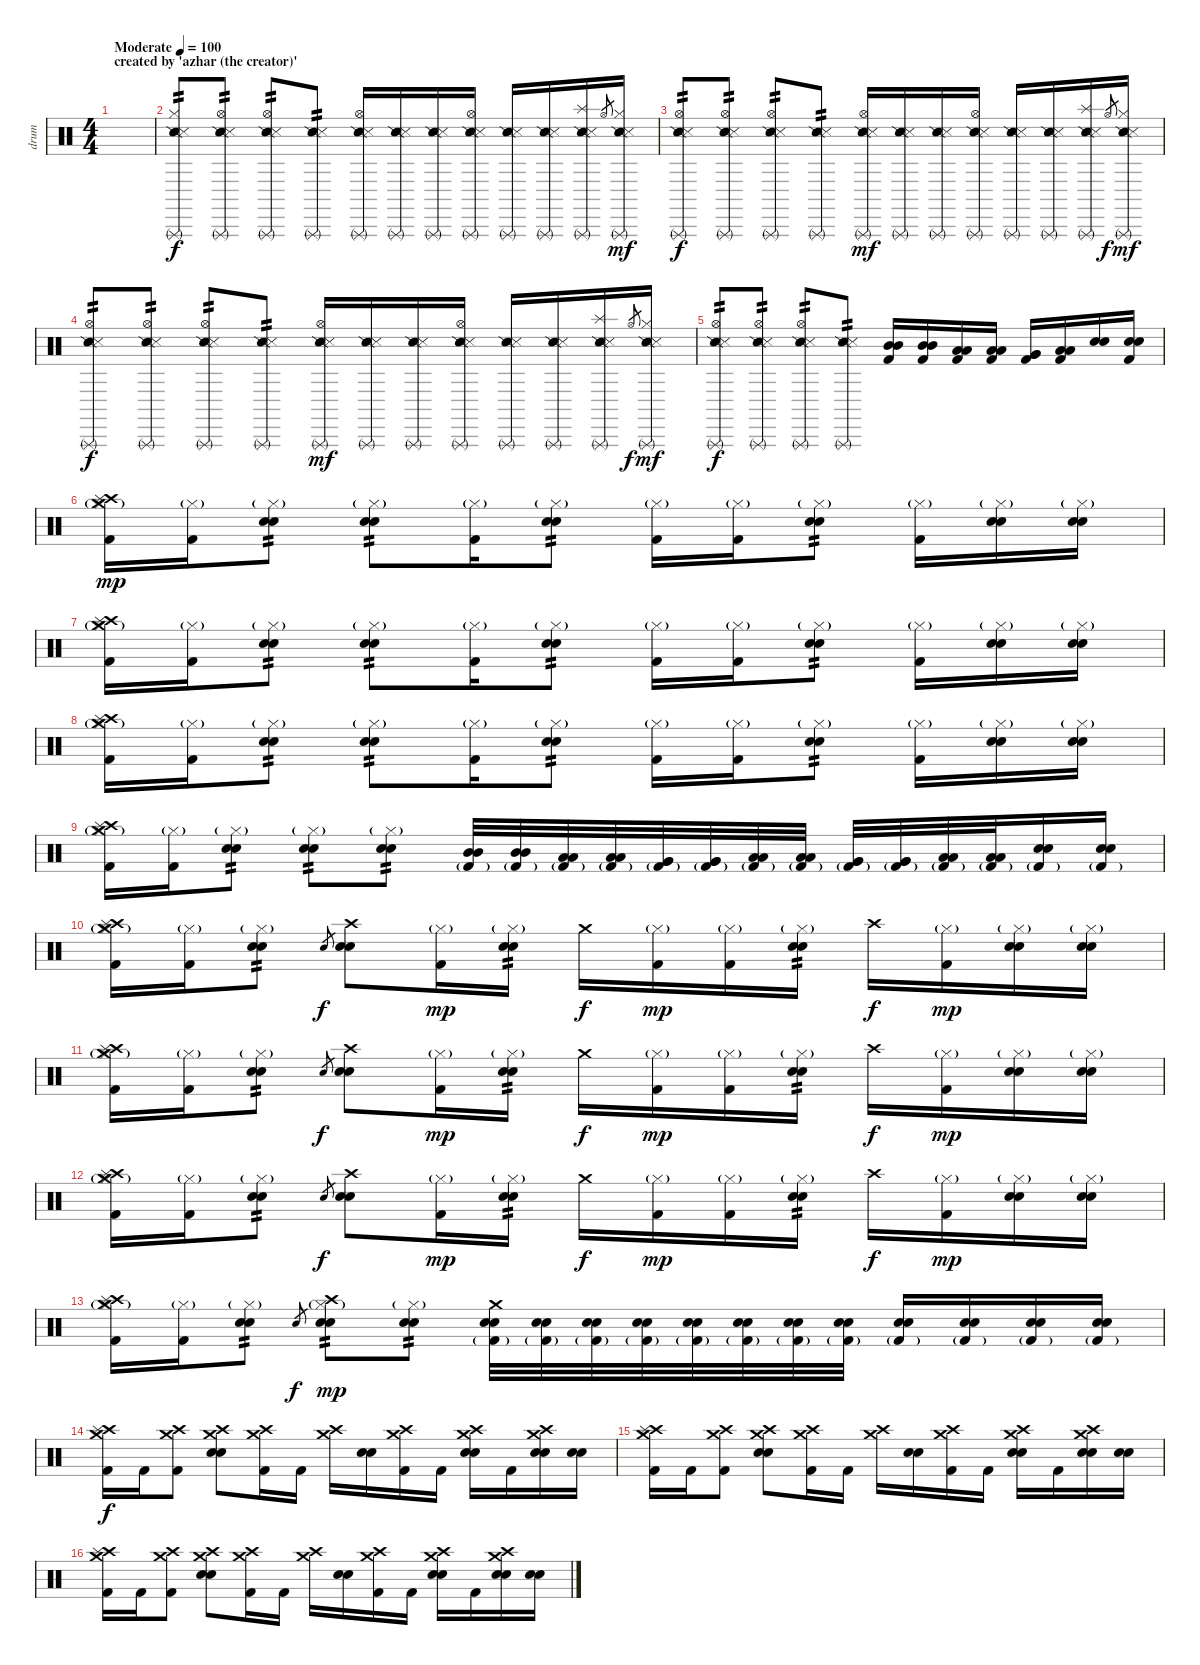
\track ("drum" "drum") {instrument percussion}
\staff {score}
\articulation defaults
\ts (4 4)
\section ("" "created by 'azhar (the creator)'")
\tempo (100 "Moderate")
\clef neutral
\ks c
|
("Triangle (rnute)" "Snare (side stick) 2" "Metronome (hit)" "Hi-Hat (closed)").8{tp 2} ("Triangle (rnute)" "Snare (side stick) 2" "Metronome (hit)" "Hi-Hat (open)").8{tp 2} ("Triangle (rnute)" "Snare (side stick) 2" "Metronome (hit)" "Hi-Hat (open)").8{tp 2} ("Triangle (rnute)" "Snare (side stick) 2" "Metronome (hit)").8{tp 2} ("Triangle (rnute)" "Snare (side stick) 2" "Metronome (hit)" "Hi-Hat (open)").16 ("Triangle (rnute)" "Snare (side stick) 2" "Metronome (hit)").16 ("Triangle (rnute)" "Snare (side stick) 2" "Metronome (hit)").16 ("Triangle (rnute)" "Snare (side stick) 2" "Metronome (hit)" "Hi-Hat (open)").16 ("Triangle (rnute)" "Snare (side stick) 2" "Metronome (hit)").16 ("Triangle (rnute)" "Snare (side stick) 2" "Metronome (hit)").16 ("Triangle (rnute)" "Snare (side stick) 2" "Metronome (hit)" "Splash (hit)").16 "Hi-Hat (open)".8{gr dy f} ("Triangle (rnute)" "Snare (side stick) 2" "Metronome (hit)" "Hi-Hat (closed)").16{dy mf} |
("Triangle (rnute)" "Snare (side stick) 2" "Metronome (hit)" "Hi-Hat (open)").8{tp 2 dy f} ("Triangle (rnute)" "Snare (side stick) 2" "Metronome (hit)" "Hi-Hat (open)").8{tp 2} ("Triangle (rnute)" "Snare (side stick) 2" "Metronome (hit)" "Hi-Hat (open)").8{tp 2} ("Triangle (rnute)" "Snare (side stick) 2" "Metronome (hit)").8{tp 2} ("Triangle (rnute)" "Snare (side stick) 2" "Metronome (hit)" "Hi-Hat (open)").16{dy mf} ("Triangle (rnute)" "Snare (side stick) 2" "Metronome (hit)").16 ("Triangle (rnute)" "Snare (side stick) 2" "Metronome (hit)").16 ("Triangle (rnute)" "Snare (side stick) 2" "Metronome (hit)" "Hi-Hat (open)").16 ("Triangle (rnute)" "Snare (side stick) 2" "Metronome (hit)").16 ("Triangle (rnute)" "Snare (side stick) 2" "Metronome (hit)").16 ("Triangle (rnute)" "Snare (side stick) 2" "Metronome (hit)" "Splash (hit)").16 "Hi-Hat (open)".8{gr dy f} ("Triangle (rnute)" "Snare (side stick) 2" "Metronome (hit)" "Hi-Hat (closed)").16{dy mf} |
("Triangle (rnute)" "Snare (side stick) 2" "Metronome (hit)" "Hi-Hat (open)").8{tp 2 dy f} ("Triangle (rnute)" "Snare (side stick) 2" "Metronome (hit)" "Hi-Hat (open)").8{tp 2} ("Triangle (rnute)" "Snare (side stick) 2" "Metronome (hit)" "Hi-Hat (open)").8{tp 2} ("Triangle (rnute)" "Snare (side stick) 2" "Metronome (hit)").8{tp 2} ("Triangle (rnute)" "Snare (side stick) 2" "Metronome (hit)" "Hi-Hat (open)").16{dy mf} ("Triangle (rnute)" "Snare (side stick) 2" "Metronome (hit)").16 ("Triangle (rnute)" "Snare (side stick) 2" "Metronome (hit)").16 ("Triangle (rnute)" "Snare (side stick) 2" "Metronome (hit)" "Hi-Hat (open)").16 ("Triangle (rnute)" "Snare (side stick) 2" "Metronome (hit)").16 ("Triangle (rnute)" "Snare (side stick) 2" "Metronome (hit)").16 ("Triangle (rnute)" "Snare (side stick) 2" "Metronome (hit)" "Splash (hit)").16 "Hi-Hat (open)".8{gr dy f} ("Triangle (rnute)" "Snare (side stick) 2" "Metronome (hit)" "Hi-Hat (closed)").16{dy mf} |
("Triangle (rnute)" "Snare (side stick) 2" "Metronome (hit)" "Hi-Hat (open)").8{tp 2 dy f} ("Triangle (rnute)" "Snare (side stick) 2" "Metronome (hit)" "Hi-Hat (open)").8{tp 2} ("Triangle (rnute)" "Snare (side stick) 2" "Metronome (hit)" "Hi-Hat (open)").8{tp 2} ("Triangle (rnute)" "Snare (side stick) 2" "Metronome (hit)").8{tp 2} ("Mid Tom (hit)" "Mid Tom (hit)" "Kick (hit) 2").16 ("Mid Tom (hit)" "Mid Tom (hit)" "Kick (hit) 2").16 ("Low Tom (hit)" "Low Tom (hit)" "Kick (hit) 2").16 ("Low Tom (hit)" "Low Tom (hit)" "Kick (hit) 2").16 ("Very Low Tom (hit)" "Very Low Tom (hit)" "Kick (hit) 2").16 ("Low Floor Tom (hit)" "Low Floor Tom (hit)" "Kick (hit) 2").16 ("Electric Snare (hit)" "Snare (hit) 2").16{bd 120} ("Electric Snare (hit)" "Snare (hit) 2" "Kick (hit) 2").16 |
("Crash medium (hit)" "Crash high (hit)" "Splash (hit)" "Kick (hit) 2" "Hi-Hat (closed)"{g}).16{dy mp} ("Kick (hit) 2" "Hi-Hat (closed)"{g}).16 ("Electric Snare (hit)" "Snare (hit) 2" "Hi-Hat (closed)"{g}).8{bd 120 tp 2} ("Electric Snare (hit)" "Snare (hit) 2" "Hi-Hat (closed)"{g}).8{bd 120 tp 2} ("Kick (hit) 2" "Hi-Hat (closed)"{g}).16 ("Electric Snare (hit)" "Snare (hit) 2" "Hi-Hat (closed)"{g}).8{tp 2} ("Kick (hit) 2" "Hi-Hat (closed)"{g}).16 ("Kick (hit) 2" "Hi-Hat (closed)"{g}).16 ("Electric Snare (hit)" "Snare (hit) 2" "Hi-Hat (closed)"{g}).8{tp 2} ("Kick (hit) 2" "Hi-Hat (closed)"{g}).16 ("Electric Snare (hit)" "Snare (hit) 2" "Hi-Hat (closed)"{g}).16 ("Electric Snare (hit)" "Snare (hit) 2" "Hi-Hat (closed)"{g}).16 |
("Crash medium (hit)" "Crash high (hit)" "Splash (hit)" "Kick (hit) 2" "Hi-Hat (closed)"{g}).16 ("Kick (hit) 2" "Hi-Hat (closed)"{g}).16 ("Electric Snare (hit)" "Snare (hit) 2" "Hi-Hat (closed)"{g}).8{bd 120 tp 2} ("Electric Snare (hit)" "Snare (hit) 2" "Hi-Hat (closed)"{g}).8{bd 120 tp 2} ("Kick (hit) 2" "Hi-Hat (closed)"{g}).16 ("Electric Snare (hit)" "Snare (hit) 2" "Hi-Hat (closed)"{g}).8{tp 2} ("Kick (hit) 2" "Hi-Hat (closed)"{g}).16 ("Kick (hit) 2" "Hi-Hat (closed)"{g}).16 ("Electric Snare (hit)" "Snare (hit) 2" "Hi-Hat (closed)"{g}).8{tp 2} ("Kick (hit) 2" "Hi-Hat (closed)"{g}).16 ("Electric Snare (hit)" "Snare (hit) 2" "Hi-Hat (closed)"{g}).16 ("Electric Snare (hit)" "Snare (hit) 2" "Hi-Hat (closed)"{g}).16 |
("Crash medium (hit)" "Crash high (hit)" "Splash (hit)" "Kick (hit) 2" "Hi-Hat (closed)"{g}).16 ("Kick (hit) 2" "Hi-Hat (closed)"{g}).16 ("Electric Snare (hit)" "Snare (hit) 2" "Hi-Hat (closed)"{g}).8{bd 120 tp 2} ("Electric Snare (hit)" "Snare (hit) 2" "Hi-Hat (closed)"{g}).8{bd 120 tp 2} ("Kick (hit) 2" "Hi-Hat (closed)"{g}).16 ("Electric Snare (hit)" "Snare (hit) 2" "Hi-Hat (closed)"{g}).8{tp 2} ("Kick (hit) 2" "Hi-Hat (closed)"{g}).16 ("Kick (hit) 2" "Hi-Hat (closed)"{g}).16 ("Electric Snare (hit)" "Snare (hit) 2" "Hi-Hat (closed)"{g}).8{tp 2} ("Kick (hit) 2" "Hi-Hat (closed)"{g}).16 ("Electric Snare (hit)" "Snare (hit) 2" "Hi-Hat (closed)"{g}).16 ("Electric Snare (hit)" "Snare (hit) 2" "Hi-Hat (closed)"{g}).16 |
("Crash medium (hit)" "Crash high (hit)" "Splash (hit)" "Kick (hit) 2" "Hi-Hat (closed)"{g}).16 ("Kick (hit) 2" "Hi-Hat (closed)"{g}).16 ("Electric Snare (hit)" "Snare (hit) 2" "Hi-Hat (closed)"{g}).8{bd 120 tp 2} ("Electric Snare (hit)" "Snare (hit) 2" "Hi-Hat (closed)"{g}).8{bd 120 tp 2} ("Electric Snare (hit)" "Snare (hit) 2" "Hi-Hat (closed)"{g}).8{bd 120 tp 2} ("Mid Tom (hit)" "Mid Tom (hit)" "Kick (hit) 2"{g}).32 ("Mid Tom (hit)" "Mid Tom (hit)" "Kick (hit) 2"{g}).32 ("Low Tom (hit)" "Low Tom (hit)" "Kick (hit) 2"{g}).32 ("Low Tom (hit)" "Low Tom (hit)" "Kick (hit) 2"{g}).32 ("Very Low Tom (hit)" "Very Low Tom (hit)" "Kick (hit) 2"{g}).32 ("Very Low Tom (hit)" "Very Low Tom (hit)" "Kick (hit) 2"{g}).32 ("Low Tom (hit)" "Low Tom (hit)" "Kick (hit) 2"{g}).32 ("Low Tom (hit)" "Low Tom (hit)" "Kick (hit) 2"{g}).32 ("Very Low Tom (hit)" "Very Low Tom (hit)" "Kick (hit) 2"{g}).32 ("Very Low Tom (hit)" "Very Low Tom (hit)" "Kick (hit) 2"{g}).32 ("Low Floor Tom (hit)" "Low Floor Tom (hit)" "Kick (hit) 2"{g}).32 ("Low Floor Tom (hit)" "Low Floor Tom (hit)" "Kick (hit) 2"{g}).32 ("Electric Snare (hit)" "Snare (hit) 2" "Kick (hit) 2"{g}).16{bd 60} ("Electric Snare (hit)" "Snare (hit) 2" "Kick (hit) 2"{g}).16 |
("Crash medium (hit)" "Crash high (hit)" "Splash (hit)" "Kick (hit) 2" "Hi-Hat (closed)"{g}).16 ("Kick (hit) 2" "Hi-Hat (closed)"{g}).16 ("Electric Snare (hit)" "Snare (hit) 2" "Hi-Hat (closed)"{g}).8{bd 120 tp 2} "Electric Snare (hit)".8{gr dy f} ("Crash high (hit)" "Electric Snare (hit)" "Snare (hit) 2").8 ("Kick (hit) 2" "Hi-Hat (closed)"{g}).16{dy mp} ("Electric Snare (hit)" "Snare (hit) 2" "Hi-Hat (closed)"{g}).16{tp 2} "Crash medium (hit)".16{dy f} ("Kick (hit) 2" "Hi-Hat (closed)"{g}).16{dy mp} ("Kick (hit) 2" "Hi-Hat (closed)"{g}).16 ("Electric Snare (hit)" "Snare (hit) 2" "Hi-Hat (closed)"{g}).16{tp 2} "Crash high (hit)".16{dy f} ("Kick (hit) 2" "Hi-Hat (closed)"{g}).16{dy mp} ("Electric Snare (hit)" "Snare (hit) 2" "Hi-Hat (closed)"{g}).16 ("Electric Snare (hit)" "Snare (hit) 2" "Hi-Hat (closed)"{g}).16 |
("Crash medium (hit)" "Crash high (hit)" "Splash (hit)" "Kick (hit) 2" "Hi-Hat (closed)"{g}).16 ("Kick (hit) 2" "Hi-Hat (closed)"{g}).16 ("Electric Snare (hit)" "Snare (hit) 2" "Hi-Hat (closed)"{g}).8{bd 120 tp 2} "Electric Snare (hit)".8{gr dy f} ("Crash high (hit)" "Electric Snare (hit)" "Snare (hit) 2").8 ("Kick (hit) 2" "Hi-Hat (closed)"{g}).16{dy mp} ("Electric Snare (hit)" "Snare (hit) 2" "Hi-Hat (closed)"{g}).16{tp 2} "Crash medium (hit)".16{dy f} ("Kick (hit) 2" "Hi-Hat (closed)"{g}).16{dy mp} ("Kick (hit) 2" "Hi-Hat (closed)"{g}).16 ("Electric Snare (hit)" "Snare (hit) 2" "Hi-Hat (closed)"{g}).16{tp 2} "Crash high (hit)".16{dy f} ("Kick (hit) 2" "Hi-Hat (closed)"{g}).16{dy mp} ("Electric Snare (hit)" "Snare (hit) 2" "Hi-Hat (closed)"{g}).16 ("Electric Snare (hit)" "Snare (hit) 2" "Hi-Hat (closed)"{g}).16 |
("Crash medium (hit)" "Crash high (hit)" "Splash (hit)" "Kick (hit) 2" "Hi-Hat (closed)"{g}).16 ("Kick (hit) 2" "Hi-Hat (closed)"{g}).16 ("Electric Snare (hit)" "Snare (hit) 2" "Hi-Hat (closed)"{g}).8{bd 120 tp 2} "Electric Snare (hit)".8{gr dy f} ("Crash high (hit)" "Electric Snare (hit)" "Snare (hit) 2").8 ("Kick (hit) 2" "Hi-Hat (closed)"{g}).16{dy mp} ("Electric Snare (hit)" "Snare (hit) 2" "Hi-Hat (closed)"{g}).16{tp 2} "Crash medium (hit)".16{dy f} ("Kick (hit) 2" "Hi-Hat (closed)"{g}).16{dy mp} ("Kick (hit) 2" "Hi-Hat (closed)"{g}).16 ("Electric Snare (hit)" "Snare (hit) 2" "Hi-Hat (closed)"{g}).16{tp 2} "Crash high (hit)".16{dy f} ("Kick (hit) 2" "Hi-Hat (closed)"{g}).16{dy mp} ("Electric Snare (hit)" "Snare (hit) 2" "Hi-Hat (closed)"{g}).16 ("Electric Snare (hit)" "Snare (hit) 2" "Hi-Hat (closed)"{g}).16 |
("Crash medium (hit)" "Crash high (hit)" "Splash (hit)" "Kick (hit) 2" "Hi-Hat (closed)"{g}).16 ("Kick (hit) 2" "Hi-Hat (closed)"{g}).16 ("Electric Snare (hit)" "Snare (hit) 2" "Hi-Hat (closed)"{g}).8{bd 120 tp 2} "Snare (hit) 2".8{gr dy f} ("Crash high (hit)" "Electric Snare (hit)" "Snare (hit) 2" "Hi-Hat (closed)"{g}).8{tp 2 dy mp} ("Electric Snare (hit)" "Snare (hit) 2" "Hi-Hat (closed)"{g}).8{bd 120 tp 2} ("Crash medium (hit)" "Electric Snare (hit)" "Snare (hit) 2" "Kick (hit) 2"{g}).32 ("Electric Snare (hit)" "Snare (hit) 2" "Kick (hit) 2"{g}).32 ("Electric Snare (hit)" "Snare (hit) 2" "Kick (hit) 2"{g}).32 ("Electric Snare (hit)" "Snare (hit) 2" "Kick (hit) 2"{g}).32 ("Electric Snare (hit)" "Snare (hit) 2" "Kick (hit) 2"{g}).32 ("Electric Snare (hit)" "Snare (hit) 2" "Kick (hit) 2"{g}).32 ("Electric Snare (hit)" "Snare (hit) 2" "Kick (hit) 2"{g}).32 ("Electric Snare (hit)" "Snare (hit) 2" "Kick (hit) 2"{g}).32 ("Electric Snare (hit)" "Snare (hit) 2" "Kick (hit) 2"{g}).16 ("Electric Snare (hit)" "Snare (hit) 2" "Kick (hit) 2"{g}).16 ("Electric Snare (hit)" "Snare (hit) 2" "Kick (hit) 2"{g}).16 ("Electric Snare (hit)" "Snare (hit) 2" "Kick (hit) 2"{g}).16 |
("Crash medium (hit)" "Crash high (hit)" "Splash (hit)" "Kick (hit) 2").16{dy f} "Kick (hit) 2".16 ("Crash medium (hit)" "Crash high (hit)" "Kick (hit) 2").8 ("Crash medium (hit)" "Crash high (hit)" "Electric Snare (hit)" "Snare (hit) 2").8 ("Crash medium (hit)" "Crash high (hit)" "Kick (hit) 2").16 "Kick (hit) 2".16 ("Crash medium (hit)" "Crash high (hit)").16 ("Electric Snare (hit)" "Snare (hit) 2").16 ("Crash medium (hit)" "Crash high (hit)" "Kick (hit) 2").16 "Kick (hit) 2".16 ("Crash medium (hit)" "Crash high (hit)" "Electric Snare (hit)" "Snare (hit) 2").16 "Kick (hit) 2".16 ("Crash medium (hit)" "Crash high (hit)" "Electric Snare (hit)" "Snare (hit) 2").16 ("Electric Snare (hit)" "Snare (hit) 2").16 |
("Crash medium (hit)" "Crash high (hit)" "Splash (hit)" "Kick (hit) 2").16 "Kick (hit) 2".16 ("Crash medium (hit)" "Crash high (hit)" "Kick (hit) 2").8 ("Crash medium (hit)" "Crash high (hit)" "Electric Snare (hit)" "Snare (hit) 2").8 ("Crash medium (hit)" "Crash high (hit)" "Kick (hit) 2").16 "Kick (hit) 2".16 ("Crash medium (hit)" "Crash high (hit)").16 ("Electric Snare (hit)" "Snare (hit) 2").16 ("Crash medium (hit)" "Crash high (hit)" "Kick (hit) 2").16 "Kick (hit) 2".16 ("Crash medium (hit)" "Crash high (hit)" "Electric Snare (hit)" "Snare (hit) 2").16 "Kick (hit) 2".16 ("Crash medium (hit)" "Crash high (hit)" "Electric Snare (hit)" "Snare (hit) 2").16 ("Electric Snare (hit)" "Snare (hit) 2").16 |
("Crash medium (hit)" "Crash high (hit)" "Splash (hit)" "Kick (hit) 2").16 "Kick (hit) 2".16 ("Crash medium (hit)" "Crash high (hit)" "Kick (hit) 2").8 ("Crash medium (hit)" "Crash high (hit)" "Electric Snare (hit)" "Snare (hit) 2").8 ("Crash medium (hit)" "Crash high (hit)" "Kick (hit) 2").16 "Kick (hit) 2".16 ("Crash medium (hit)" "Crash high (hit)").16 ("Electric Snare (hit)" "Snare (hit) 2").16 ("Crash medium (hit)" "Crash high (hit)" "Kick (hit) 2").16 "Kick (hit) 2".16 ("Crash medium (hit)" "Crash high (hit)" "Electric Snare (hit)" "Snare (hit) 2").16 "Kick (hit) 2".16 ("Crash medium (hit)" "Crash high (hit)" "Electric Snare (hit)" "Snare (hit) 2").16 ("Electric Snare (hit)" "Snare (hit) 2").16
